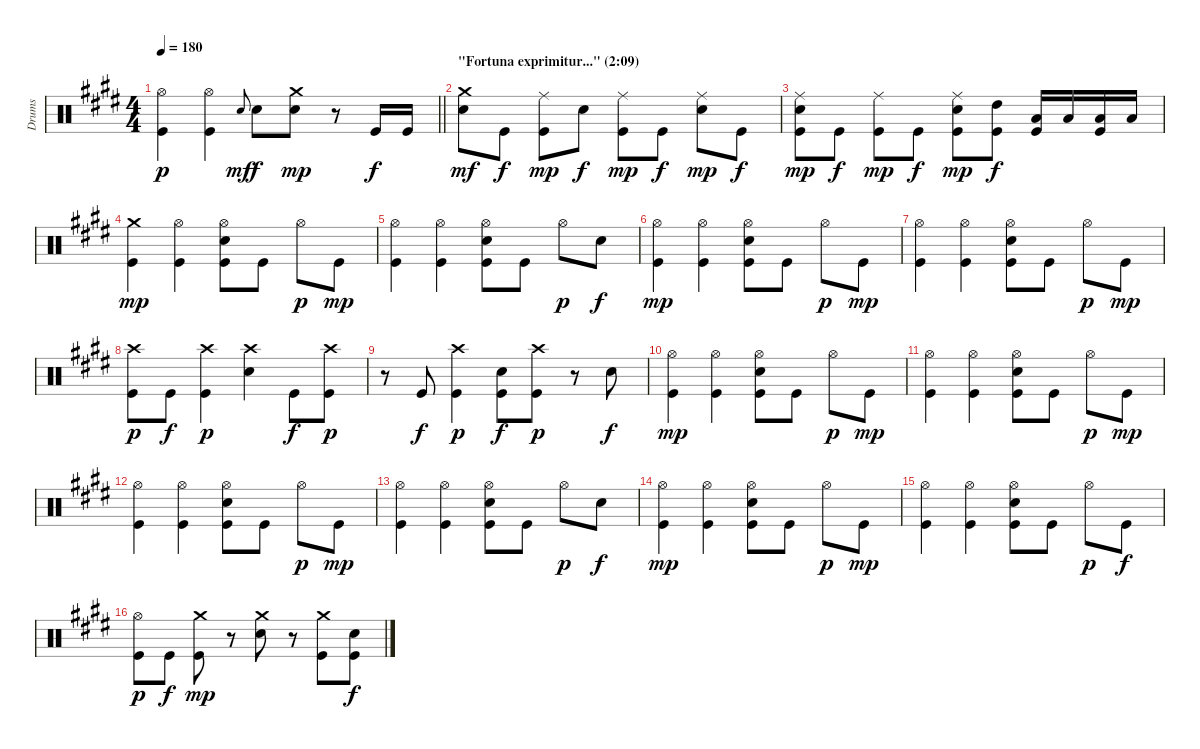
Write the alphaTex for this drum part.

\track ("Drums" "Drums") {instrument percussion}
\staff {score}
\articulation defaults
\ts (4 4)
\tempo 180
\clef neutral
\barLineRight lightlight
\ks c#minor
("Hi-Hat (open)" "Kick (hit)").4{dy p} ("Hi-Hat (open)" "Kick (hit)").4 "Snare (hit) 2".8{gr onbeat dy mf} "Snare (hit) 2".8{dy f} ("Crash medium (hit)" "Snare (hit) 2").8{dy mp} r.8 "Kick (hit)".16{dy f} "Kick (hit)".16 |
\section ("" "\"Fortuna exprimitur...\" (2:09)")
("Crash medium (hit)" "Snare (hit) 2").8{dy mf} "Kick (hit)".8{dy f} ("Ride (middle)" "Kick (hit)").8{dy mp} "Snare (hit) 2".8{dy f} ("Ride (middle)" "Kick (hit)").8{dy mp} "Kick (hit)".8{dy f} ("Ride (middle)" "Snare (hit) 2").8{dy mp} "Kick (hit)".8{dy f} |
("Ride (middle)" "Snare (hit) 2" "Kick (hit)").8{dy mp} "Kick (hit)".8{dy f} ("Ride (middle)" "Kick (hit)").8{dy mp} "Kick (hit)".8{dy f} ("Ride (middle)" "Snare (hit) 2" "Kick (hit)").8{dy mp} ("High Tom (hit)" "Kick (hit)").8{dy f} ("Low Tom (hit)" "Kick (hit)").16 "Low Tom (hit)".16 ("Low Tom (hit)" "Kick (hit)").16 "Low Tom (hit)".16 |
("Crash medium (hit)" "Kick (hit)").4{dy mp} ("Hi-Hat (open)" "Kick (hit)").4 ("Hi-Hat (open)" "Snare (hit) 2" "Kick (hit)").8 "Kick (hit)".8 "Hi-Hat (open)".8{dy p} "Kick (hit)".8{dy mp} |
("Hi-Hat (open)" "Kick (hit)").4 ("Hi-Hat (open)" "Kick (hit)").4 ("Hi-Hat (open)" "Snare (hit) 2" "Kick (hit)").8 "Kick (hit)".8 "Hi-Hat (open)".8{dy p} "Snare (hit) 2".8{dy f} |
("Hi-Hat (open)" "Kick (hit)").4{dy mp} ("Hi-Hat (open)" "Kick (hit)").4 ("Hi-Hat (open)" "Snare (hit) 2" "Kick (hit)").8 "Kick (hit)".8 "Hi-Hat (open)".8{dy p} "Kick (hit)".8{dy mp} |
("Hi-Hat (open)" "Kick (hit)").4 ("Hi-Hat (open)" "Kick (hit)").4 ("Hi-Hat (open)" "Snare (hit) 2" "Kick (hit)").8 "Kick (hit)".8 "Hi-Hat (open)".8{dy p} "Kick (hit)".8{dy mp} |
("Crash high (hit)" "Kick (hit)").8{dy p} "Kick (hit)".8{dy f} ("Crash high (hit)" "Kick (hit)").4{dy p} ("Crash high (hit)" "Snare (hit) 2").4 "Kick (hit)".8{dy f} ("Crash high (hit)" "Kick (hit)").8{dy p} |
r.8 "Kick (hit)".8{dy f} ("Crash high (hit)" "Kick (hit)").4{dy p} ("Snare (hit) 2" "Kick (hit)").8{dy f} ("Crash high (hit)" "Kick (hit)").8{dy p} r.8 "Snare (hit) 2".8{dy f} |
("Hi-Hat (open)" "Kick (hit)").4{dy mp} ("Hi-Hat (open)" "Kick (hit)").4 ("Hi-Hat (open)" "Snare (hit) 2" "Kick (hit)").8 "Kick (hit)".8 "Hi-Hat (open)".8{dy p} "Kick (hit)".8{dy mp} |
("Hi-Hat (open)" "Kick (hit)").4 ("Hi-Hat (open)" "Kick (hit)").4 ("Hi-Hat (open)" "Snare (hit) 2" "Kick (hit)").8 "Kick (hit)".8 "Hi-Hat (open)".8{dy p} "Kick (hit)".8{dy mp} |
("Hi-Hat (open)" "Kick (hit)").4 ("Hi-Hat (open)" "Kick (hit)").4 ("Hi-Hat (open)" "Snare (hit) 2" "Kick (hit)").8 "Kick (hit)".8 "Hi-Hat (open)".8{dy p} "Kick (hit)".8{dy mp} |
("Hi-Hat (open)" "Kick (hit)").4 ("Hi-Hat (open)" "Kick (hit)").4 ("Hi-Hat (open)" "Snare (hit) 2" "Kick (hit)").8 "Kick (hit)".8 "Hi-Hat (open)".8{dy p} "Snare (hit) 2".8{dy f} |
("Hi-Hat (open)" "Kick (hit)").4{dy mp} ("Hi-Hat (open)" "Kick (hit)").4 ("Hi-Hat (open)" "Snare (hit) 2" "Kick (hit)").8 "Kick (hit)".8 "Hi-Hat (open)".8{dy p} "Kick (hit)".8{dy mp} |
("Hi-Hat (open)" "Kick (hit)").4 ("Hi-Hat (open)" "Kick (hit)").4 ("Hi-Hat (open)" "Snare (hit) 2" "Kick (hit)").8 "Kick (hit)".8 "Hi-Hat (open)".8{dy p} "Kick (hit)".8{dy f} |
("Hi-Hat (open)" "Kick (hit)").8{dy p} "Kick (hit)".8{dy f} ("Crash medium (hit)" "Kick (hit)").8{dy mp} r.8 ("Crash medium (hit)" "Snare (hit) 2").8 r.8 ("Crash medium (hit)" "Kick (hit)").8 ("Snare (hit) 2" "Kick (hit)").8{dy f}
